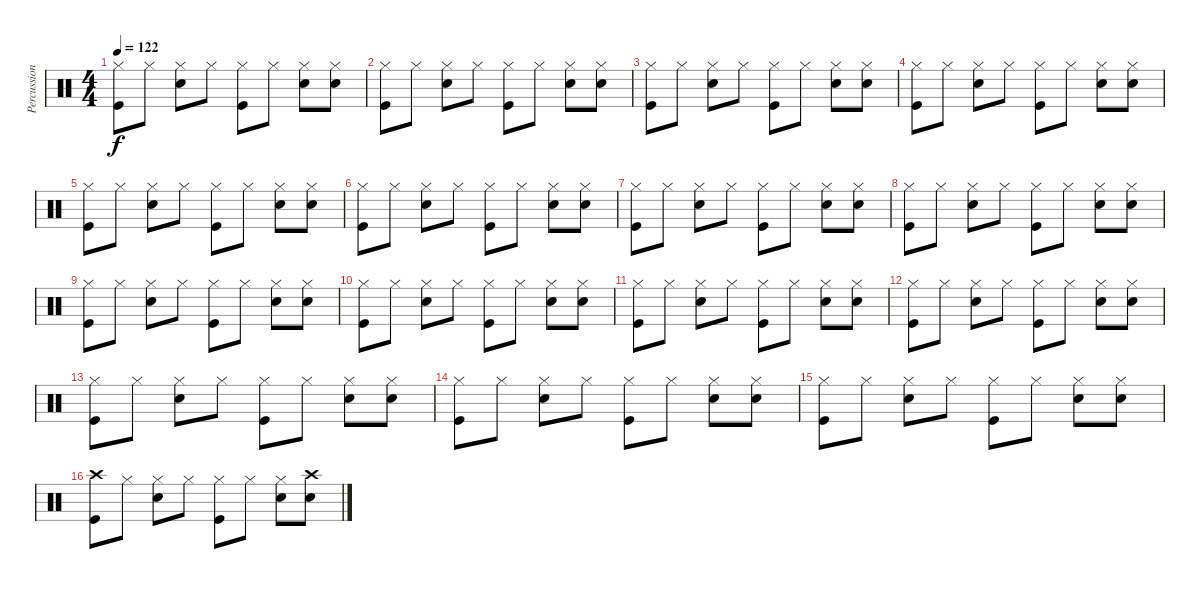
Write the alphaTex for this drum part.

\track ("Percussions" "Percussion") {instrument percussion}
\staff {score}
\articulation defaults
\ts (4 4)
\tempo 122
\clef neutral
\ks c
("Hi-Hat (closed)" "Kick (hit)").8{dy f} "Hi-Hat (closed)".8 ("Hi-Hat (closed)" "Snare (hit) 2").8 "Hi-Hat (closed)".8 ("Hi-Hat (closed)" "Kick (hit)").8 "Hi-Hat (closed)".8 ("Hi-Hat (closed)" "Snare (hit) 2").8 ("Hi-Hat (closed)" "Snare (hit) 2").8 |
("Hi-Hat (closed)" "Kick (hit)").8 "Hi-Hat (closed)".8 ("Hi-Hat (closed)" "Snare (hit) 2").8 "Hi-Hat (closed)".8 ("Hi-Hat (closed)" "Kick (hit)").8 "Hi-Hat (closed)".8 ("Hi-Hat (closed)" "Snare (hit) 2").8 ("Hi-Hat (closed)" "Snare (hit) 2").8 |
("Hi-Hat (closed)" "Kick (hit)").8 "Hi-Hat (closed)".8 ("Hi-Hat (closed)" "Snare (hit) 2").8 "Hi-Hat (closed)".8 ("Hi-Hat (closed)" "Kick (hit)").8 "Hi-Hat (closed)".8 ("Hi-Hat (closed)" "Snare (hit) 2").8 ("Hi-Hat (closed)" "Snare (hit) 2").8 |
("Hi-Hat (closed)" "Kick (hit)").8 "Hi-Hat (closed)".8 ("Hi-Hat (closed)" "Snare (hit) 2").8 "Hi-Hat (closed)".8 ("Hi-Hat (closed)" "Kick (hit)").8 "Hi-Hat (closed)".8 ("Hi-Hat (closed)" "Snare (hit) 2").8 ("Hi-Hat (closed)" "Snare (hit) 2").8 |
("Hi-Hat (closed)" "Kick (hit)").8 "Hi-Hat (closed)".8 ("Hi-Hat (closed)" "Snare (hit) 2").8 "Hi-Hat (closed)".8 ("Hi-Hat (closed)" "Kick (hit)").8 "Hi-Hat (closed)".8 ("Hi-Hat (closed)" "Snare (hit) 2").8 ("Hi-Hat (closed)" "Snare (hit) 2").8 |
("Hi-Hat (closed)" "Kick (hit)").8 "Hi-Hat (closed)".8 ("Hi-Hat (closed)" "Snare (hit) 2").8 "Hi-Hat (closed)".8 ("Hi-Hat (closed)" "Kick (hit)").8 "Hi-Hat (closed)".8 ("Hi-Hat (closed)" "Snare (hit) 2").8 ("Hi-Hat (closed)" "Snare (hit) 2").8 |
("Hi-Hat (closed)" "Kick (hit)").8 "Hi-Hat (closed)".8 ("Hi-Hat (closed)" "Snare (hit) 2").8 "Hi-Hat (closed)".8 ("Hi-Hat (closed)" "Kick (hit)").8 "Hi-Hat (closed)".8 ("Hi-Hat (closed)" "Snare (hit) 2").8 ("Hi-Hat (closed)" "Snare (hit) 2").8 |
("Hi-Hat (closed)" "Kick (hit)").8 "Hi-Hat (closed)".8 ("Hi-Hat (closed)" "Snare (hit) 2").8 "Hi-Hat (closed)".8 ("Hi-Hat (closed)" "Kick (hit)").8 "Hi-Hat (closed)".8 ("Hi-Hat (closed)" "Snare (hit) 2").8 ("Hi-Hat (closed)" "Snare (hit) 2").8 |
("Hi-Hat (closed)" "Kick (hit)").8 "Hi-Hat (closed)".8 ("Hi-Hat (closed)" "Snare (hit) 2").8 "Hi-Hat (closed)".8 ("Hi-Hat (closed)" "Kick (hit)").8 "Hi-Hat (closed)".8 ("Hi-Hat (closed)" "Snare (hit) 2").8 ("Hi-Hat (closed)" "Snare (hit) 2").8 |
("Hi-Hat (closed)" "Kick (hit)").8 "Hi-Hat (closed)".8 ("Hi-Hat (closed)" "Snare (hit) 2").8 "Hi-Hat (closed)".8 ("Hi-Hat (closed)" "Kick (hit)").8 "Hi-Hat (closed)".8 ("Hi-Hat (closed)" "Snare (hit) 2").8 ("Hi-Hat (closed)" "Snare (hit) 2").8 |
("Hi-Hat (closed)" "Kick (hit)").8 "Hi-Hat (closed)".8 ("Hi-Hat (closed)" "Snare (hit) 2").8 "Hi-Hat (closed)".8 ("Hi-Hat (closed)" "Kick (hit)").8 "Hi-Hat (closed)".8 ("Hi-Hat (closed)" "Snare (hit) 2").8 ("Hi-Hat (closed)" "Snare (hit) 2").8 |
("Hi-Hat (closed)" "Kick (hit)").8 "Hi-Hat (closed)".8 ("Hi-Hat (closed)" "Snare (hit) 2").8 "Hi-Hat (closed)".8 ("Hi-Hat (closed)" "Kick (hit)").8 "Hi-Hat (closed)".8 ("Hi-Hat (closed)" "Snare (hit) 2").8 ("Hi-Hat (closed)" "Snare (hit) 2").8 |
("Hi-Hat (closed)" "Kick (hit)").8 "Hi-Hat (closed)".8 ("Hi-Hat (closed)" "Snare (hit) 2").8 "Hi-Hat (closed)".8 ("Hi-Hat (closed)" "Kick (hit)").8 "Hi-Hat (closed)".8 ("Hi-Hat (closed)" "Snare (hit) 2").8 ("Hi-Hat (closed)" "Snare (hit) 2").8 |
("Hi-Hat (closed)" "Kick (hit)").8 "Hi-Hat (closed)".8 ("Hi-Hat (closed)" "Snare (hit) 2").8 "Hi-Hat (closed)".8 ("Hi-Hat (closed)" "Kick (hit)").8 "Hi-Hat (closed)".8 ("Hi-Hat (closed)" "Snare (hit) 2").8 ("Hi-Hat (closed)" "Snare (hit) 2").8 |
("Hi-Hat (closed)" "Kick (hit)").8 "Hi-Hat (closed)".8 ("Hi-Hat (closed)" "Snare (hit) 2").8 "Hi-Hat (closed)".8 ("Hi-Hat (closed)" "Kick (hit)").8 "Hi-Hat (closed)".8 ("Hi-Hat (closed)" "Snare (hit) 2").8 ("Hi-Hat (closed)" "Snare (hit) 2").8 |
("Crash high (hit)" "Kick (hit)").8 "Hi-Hat (closed)".8 ("Hi-Hat (closed)" "Snare (hit) 2").8 "Hi-Hat (closed)".8 ("Hi-Hat (closed)" "Kick (hit)").8 "Hi-Hat (closed)".8 ("Hi-Hat (closed)" "Snare (hit) 2").8 ("Crash high (hit)" "Snare (hit) 2").8
